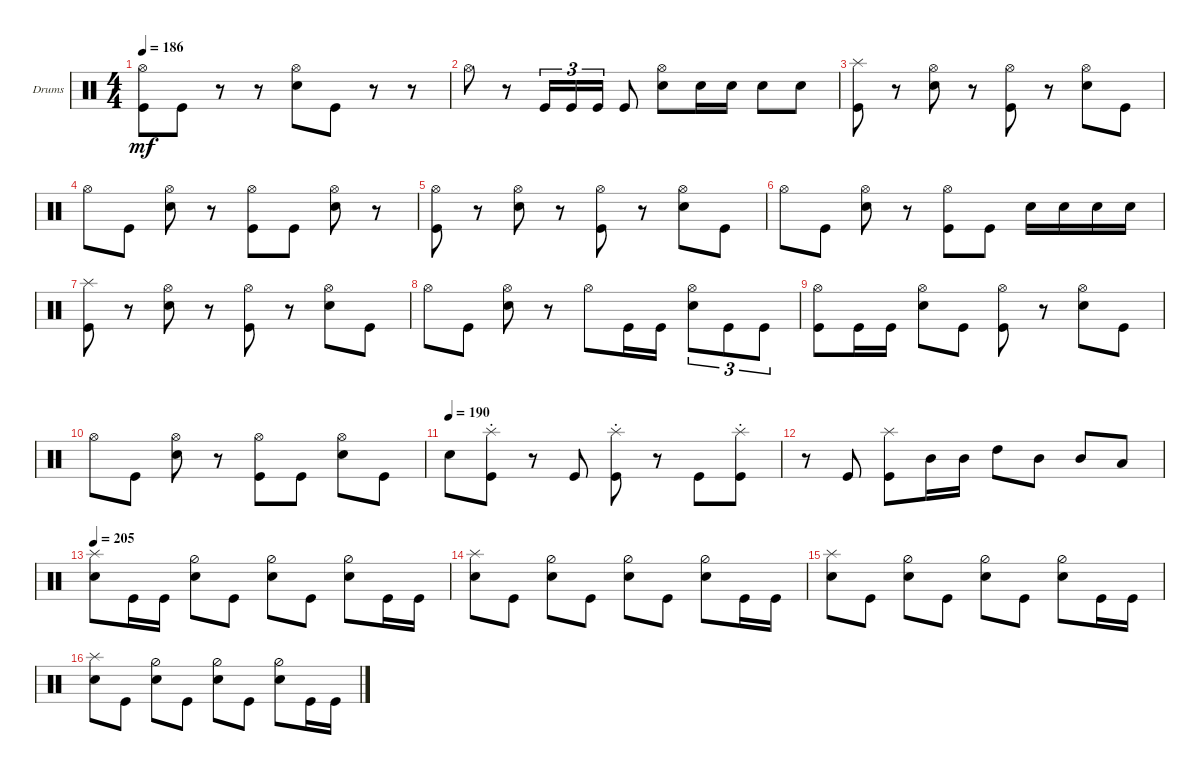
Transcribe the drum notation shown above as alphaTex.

\bracketExtendMode groupsimilarinstruments
\firstSystemTrackNameOrientation horizontal
\otherSystemsTrackNameOrientation horizontal
\track ("Drumkit" "Drums") {instrument percussion}
\staff {score}
\articulation defaults
\ts (4 4)
\tempo 186
\clef neutral
\ks c
("Kick (hit)" "Hi-Hat (open)").8{dy mf} "Kick (hit)".8 r.8 r.8 ("Snare (hit) 2" "Hi-Hat (open)").8 "Kick (hit)".8 r.8 r.8 |
"Hi-Hat (open)".8 r.8 "Kick (hit)".16{tu (3 2)} "Kick (hit)".16{tu (3 2)} "Kick (hit)".16{tu (3 2)} "Kick (hit)".8 ("Snare (hit) 2" "Hi-Hat (open)").8 "Snare (hit) 2".16 "Snare (hit) 2".16 "Snare (hit) 2".8 "Snare (hit) 2".8 |
("Kick (hit)" "Splash (hit)").8 r.8 ("Snare (hit) 2" "Hi-Hat (open)").8 r.8 ("Kick (hit)" "Hi-Hat (open)").8 r.8 ("Snare (hit) 2" "Hi-Hat (open)").8 "Kick (hit)".8 |
"Hi-Hat (open)".8 "Kick (hit)".8 ("Snare (hit) 2" "Hi-Hat (open)").8 r.8 ("Kick (hit)" "Hi-Hat (open)").8 "Kick (hit)".8 ("Snare (hit) 2" "Hi-Hat (open)").8 r.8 |
("Kick (hit)" "Hi-Hat (open)").8 r.8 ("Snare (hit) 2" "Hi-Hat (open)").8 r.8 ("Kick (hit)" "Hi-Hat (open)").8 r.8 ("Snare (hit) 2" "Hi-Hat (open)").8 "Kick (hit)".8 |
"Hi-Hat (open)".8 "Kick (hit)".8 ("Snare (hit) 2" "Hi-Hat (open)").8 r.8 ("Kick (hit)" "Hi-Hat (open)").8 "Kick (hit)".8 "Snare (hit) 2".16 "Snare (hit) 2".16 "Snare (hit) 2".16 "Snare (hit) 2".16 |
("Kick (hit)" "Splash (hit)").8 r.8 ("Snare (hit) 2" "Hi-Hat (open)").8 r.8 ("Kick (hit)" "Hi-Hat (open)").8 r.8 ("Snare (hit) 2" "Hi-Hat (open)").8 "Kick (hit)".8 |
"Hi-Hat (open)".8 "Kick (hit)".8 ("Snare (hit) 2" "Hi-Hat (open)").8 r.8 "Hi-Hat (open)".8 "Kick (hit)".16 "Kick (hit)".16 ("Snare (hit) 2" "Hi-Hat (open)").8{tu (3 2)} "Kick (hit)".8{tu (3 2)} "Kick (hit)".8{tu (3 2)} |
("Kick (hit)" "Hi-Hat (open)").8 "Kick (hit)".16 "Kick (hit)".16 ("Snare (hit) 2" "Hi-Hat (open)").8 "Kick (hit)".8 ("Kick (hit)" "Hi-Hat (open)").8 r.8 ("Snare (hit) 2" "Hi-Hat (open)").8 "Kick (hit)".8 |
"Hi-Hat (open)".8 "Kick (hit)".8 ("Snare (hit) 2" "Hi-Hat (open)").8 r.8 ("Kick (hit)" "Hi-Hat (open)").8 "Kick (hit)".8 ("Snare (hit) 2" "Hi-Hat (open)").8 "Kick (hit)".8 |
\tempo (190)
"Snare (hit) 2".8 ("Kick (hit)" "Splash (hit)"{st}).8 r.8 "Kick (hit)".8 ("Kick (hit)" "Splash (hit)"{st}).8 r.8 "Kick (hit)".8 ("Kick (hit)" "Splash (hit)"{st}).8 |
r.8 "Kick (hit)".8 ("Kick (hit)" "Splash (hit)").8 "Mid Tom (hit)".16 "Mid Tom (hit)".16 "High Tom (hit)".8 "Mid Tom (hit)".8 "Mid Tom (hit)".8 "Low Tom (hit)".8 |
\tempo 205
("Snare (hit) 2" "Splash (hit)").8 "Kick (hit)".16 "Kick (hit)".16 ("Snare (hit) 2" "Hi-Hat (half)").8 "Kick (hit)".8 ("Snare (hit) 2" "Hi-Hat (half)").8 "Kick (hit)".8 ("Snare (hit) 2" "Hi-Hat (half)").8 "Kick (hit)".16 "Kick (hit)".16 |
("Snare (hit) 2" "Splash (hit)").8 "Kick (hit)".8 ("Snare (hit) 2" "Hi-Hat (half)").8 "Kick (hit)".8 ("Snare (hit) 2" "Hi-Hat (half)").8 "Kick (hit)".8 ("Snare (hit) 2" "Hi-Hat (half)").8 "Kick (hit)".16 "Kick (hit)".16 |
("Snare (hit) 2" "Splash (hit)").8 "Kick (hit)".8 ("Snare (hit) 2" "Hi-Hat (half)").8 "Kick (hit)".8 ("Snare (hit) 2" "Hi-Hat (half)").8 "Kick (hit)".8 ("Snare (hit) 2" "Hi-Hat (half)").8 "Kick (hit)".16 "Kick (hit)".16 |
("Snare (hit) 2" "Splash (hit)").8 "Kick (hit)".8 ("Snare (hit) 2" "Hi-Hat (half)").8 "Kick (hit)".8 ("Snare (hit) 2" "Hi-Hat (half)").8 "Kick (hit)".8 ("Snare (hit) 2" "Hi-Hat (half)").8 "Kick (hit)".16 "Kick (hit)".16
